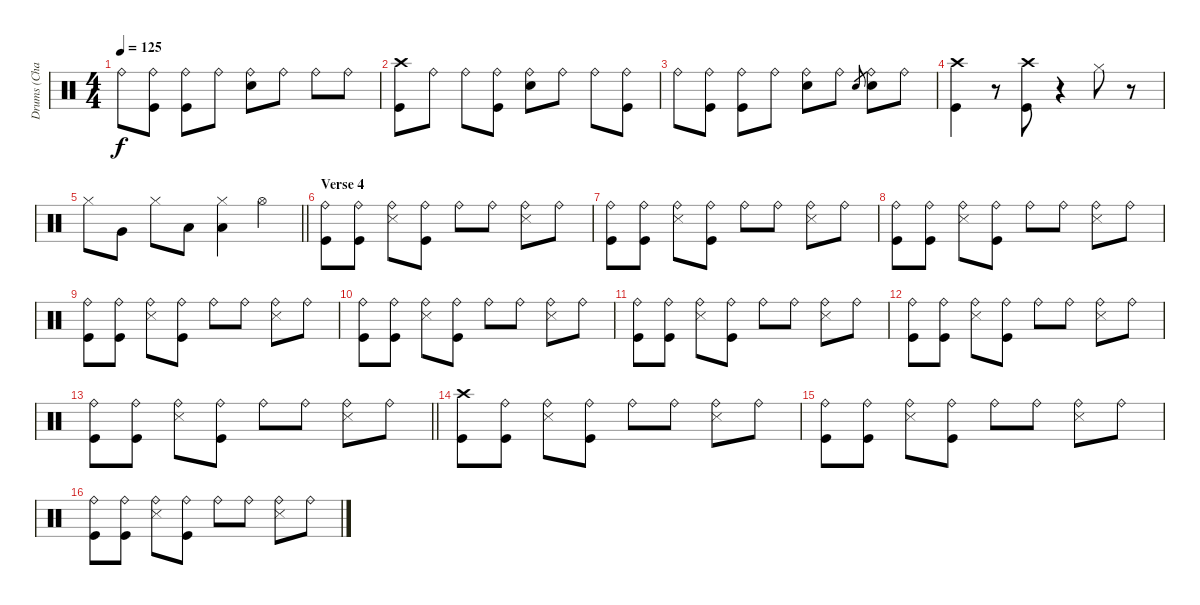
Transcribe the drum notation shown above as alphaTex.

\track ("Drums (Chad Smith)" "Drums (Cha") {instrument percussion}
\staff {score}
\articulation defaults
\ts (4 4)
\tempo 125
\clef neutral
\ks c "Ride (bell)".8{dy f}
("Ride (bell)" "Kick (hit)").8 ("Ride (bell)" "Kick (hit)").8 "Ride (bell)".8 ("Ride (bell)" "Snare (hit) 2").8 "Ride (bell)".8 "Ride (bell)".8 "Ride (bell)".8 |
("Crash high (hit)" "Kick (hit)").8 "Ride (bell)".8 "Ride (bell)".8 ("Ride (bell)" "Kick (hit)").8 ("Ride (bell)" "Snare (hit) 2").8 "Ride (bell)".8 "Ride (bell)".8 ("Ride (bell)" "Kick (hit)").8 |
"Ride (bell)".8 ("Ride (bell)" "Kick (hit)").8 ("Ride (bell)" "Kick (hit)").8 "Ride (bell)".8 ("Ride (bell)" "Snare (hit) 2").8 "Ride (bell)".8 "Snare (hit) 2".8{gr} ("Ride (bell)" "Snare (hit) 2").8 "Ride (bell)".8 |
("Crash high (hit)" "Kick (hit)").4 r.8 ("Crash high (hit)" "Kick (hit)").8 r.4 "Hi-Hat (closed)".8 r.8 |
\barLineRight lightlight "Hi-Hat (closed)".8 "Very Low Tom (hit)".8 "Hi-Hat (closed)".8 "Low Floor Tom (hit)".8
("Hi-Hat (closed)" "Low Floor Tom (hit)").4 "Hi-Hat (open)".4 |
\section ("" "Verse 4")
("Ride (bell)" "Kick (hit)").8 ("Ride (bell)" "Kick (hit)").8 ("Ride (bell)" "Snare (side stick) 3").8 ("Ride (bell)" "Kick (hit)").8 "Ride (bell)".8 "Ride (bell)".8 ("Ride (bell)" "Snare (side stick) 3").8 "Ride (bell)".8 |
("Ride (bell)" "Kick (hit)").8 ("Ride (bell)" "Kick (hit)").8 ("Ride (bell)" "Snare (side stick) 3").8 ("Ride (bell)" "Kick (hit)").8 "Ride (bell)".8 "Ride (bell)".8 ("Ride (bell)" "Snare (side stick) 3").8 "Ride (bell)".8 |
("Ride (bell)" "Kick (hit)").8 ("Ride (bell)" "Kick (hit)").8 ("Ride (bell)" "Snare (side stick) 3").8 ("Ride (bell)" "Kick (hit)").8 "Ride (bell)".8 "Ride (bell)".8 ("Ride (bell)" "Snare (side stick) 3").8 "Ride (bell)".8 |
("Ride (bell)" "Kick (hit)").8 ("Ride (bell)" "Kick (hit)").8 ("Ride (bell)" "Snare (side stick) 3").8 ("Ride (bell)" "Kick (hit)").8 "Ride (bell)".8 "Ride (bell)".8 ("Ride (bell)" "Snare (side stick) 3").8 "Ride (bell)".8 |
("Ride (bell)" "Kick (hit)").8 ("Ride (bell)" "Kick (hit)").8 ("Ride (bell)" "Snare (side stick) 3").8 ("Ride (bell)" "Kick (hit)").8 "Ride (bell)".8 "Ride (bell)".8 ("Ride (bell)" "Snare (side stick) 3").8 "Ride (bell)".8 |
("Ride (bell)" "Kick (hit)").8 ("Ride (bell)" "Kick (hit)").8 ("Ride (bell)" "Snare (side stick) 3").8 ("Ride (bell)" "Kick (hit)").8 "Ride (bell)".8 "Ride (bell)".8 ("Ride (bell)" "Snare (side stick) 3").8 "Ride (bell)".8 |
("Ride (bell)" "Kick (hit)").8 ("Ride (bell)" "Kick (hit)").8 ("Ride (bell)" "Snare (side stick) 3").8 ("Ride (bell)" "Kick (hit)").8 "Ride (bell)".8 "Ride (bell)".8 ("Ride (bell)" "Snare (side stick) 3").8 "Ride (bell)".8 |
\barLineRight lightlight
("Ride (bell)" "Kick (hit)").8 ("Ride (bell)" "Kick (hit)").8 ("Ride (bell)" "Snare (side stick) 3").8 ("Ride (bell)" "Kick (hit)").8 "Ride (bell)".8 "Ride (bell)".8 ("Ride (bell)" "Snare (side stick) 3").8 "Ride (bell)".8 |
\section ("" "")
("Crash high (hit)" "Kick (hit)").8 ("Ride (bell)" "Kick (hit)").8 ("Ride (bell)" "Snare (side stick) 3").8 ("Ride (bell)" "Kick (hit)").8 "Ride (bell)".8 "Ride (bell)".8 ("Ride (bell)" "Snare (side stick) 3").8 "Ride (bell)".8 |
("Ride (bell)" "Kick (hit)").8 ("Ride (bell)" "Kick (hit)").8 ("Ride (bell)" "Snare (side stick) 3").8 ("Ride (bell)" "Kick (hit)").8 "Ride (bell)".8 "Ride (bell)".8 ("Ride (bell)" "Snare (side stick) 3").8 "Ride (bell)".8 |
("Ride (bell)" "Kick (hit)").8 ("Ride (bell)" "Kick (hit)").8 ("Ride (bell)" "Snare (side stick) 3").8 ("Ride (bell)" "Kick (hit)").8 "Ride (bell)".8 "Ride (bell)".8 ("Ride (bell)" "Snare (side stick) 3").8 "Ride (bell)".8
